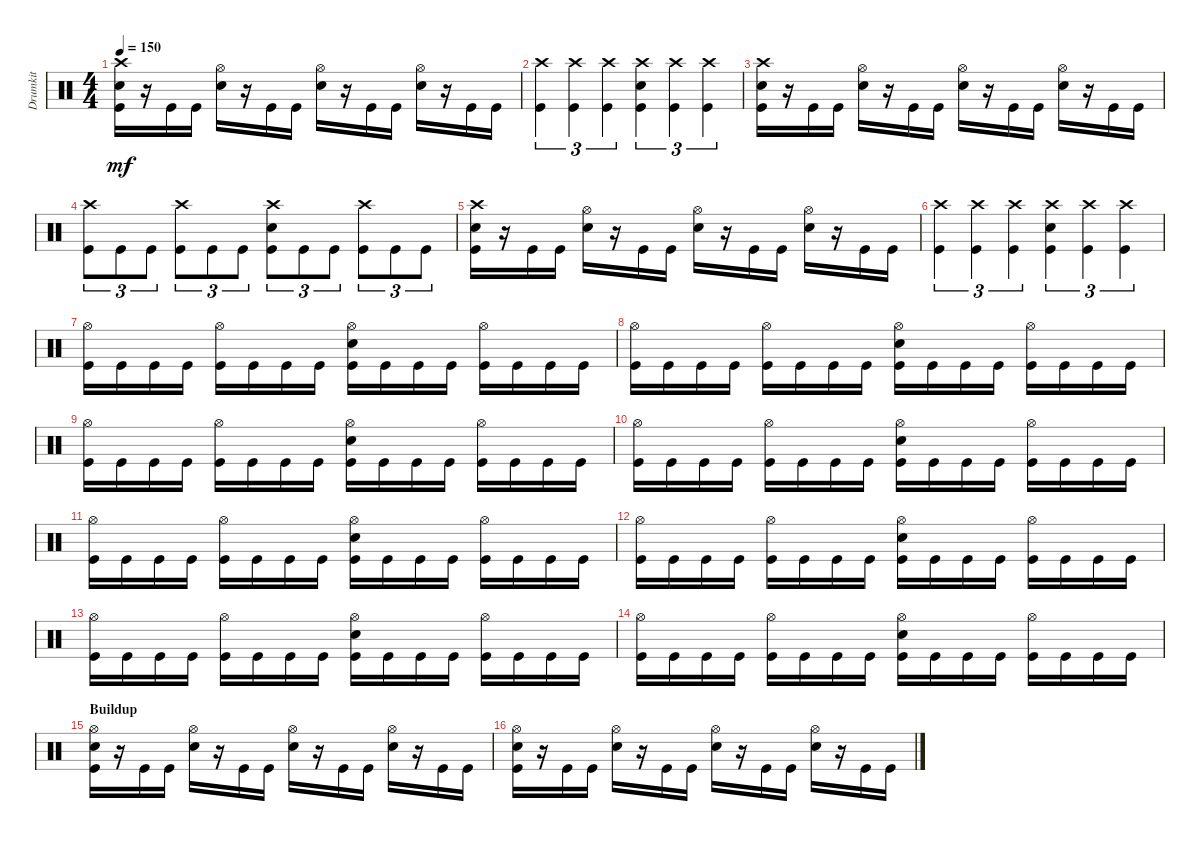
\track ("Drumkit" "Drumkit") {instrument percussion}
\staff {score}
\articulation defaults
\ts (4 4)
\tempo 150
\clef neutral
\ks c
("Snare (hit) 2" "Kick (hit)" "Crash high (hit)").16{dy mf} r.16 "Kick (hit)".16 "Kick (hit)".16 ("Snare (hit) 2" "Hi-Hat (open)").16 r.16 "Kick (hit)".16 "Kick (hit)".16 ("Snare (hit) 2" "Hi-Hat (open)").16 r.16 "Kick (hit)".16 "Kick (hit)".16 ("Snare (hit) 2" "Hi-Hat (open)").16 r.16 "Kick (hit)".16 "Kick (hit)".16 |
("Kick (hit)" "Crash high (hit)").4{tu (3 2)} ("Kick (hit)" "Crash high (hit)").4{tu (3 2)} ("Kick (hit)" "Crash high (hit)").4{tu (3 2)} ("Kick (hit)" "Crash high (hit)" "Snare (hit) 2").4{tu (3 2)} ("Kick (hit)" "Crash high (hit)").4{tu (3 2)} ("Kick (hit)" "Crash high (hit)").4{tu (3 2)} |
("Snare (hit) 2" "Kick (hit)" "Crash high (hit)").16 r.16 "Kick (hit)".16 "Kick (hit)".16 ("Snare (hit) 2" "Hi-Hat (open)").16 r.16 "Kick (hit)".16 "Kick (hit)".16 ("Snare (hit) 2" "Hi-Hat (open)").16 r.16 "Kick (hit)".16 "Kick (hit)".16 ("Snare (hit) 2" "Hi-Hat (open)").16 r.16 "Kick (hit)".16 "Kick (hit)".16 |
("Kick (hit)" "Crash high (hit)").8{tu (3 2)} "Kick (hit)".8{tu (3 2)} "Kick (hit)".8{tu (3 2)} ("Kick (hit)" "Crash high (hit)").8{tu (3 2)} "Kick (hit)".8{tu (3 2)} "Kick (hit)".8{tu (3 2)} ("Kick (hit)" "Crash high (hit)" "Snare (hit) 2").8{tu (3 2)} "Kick (hit)".8{tu (3 2)} "Kick (hit)".8{tu (3 2)} ("Kick (hit)" "Crash high (hit)").8{tu (3 2)} "Kick (hit)".8{tu (3 2)} "Kick (hit)".8{tu (3 2)} |
("Snare (hit) 2" "Kick (hit)" "Crash high (hit)").16 r.16 "Kick (hit)".16 "Kick (hit)".16 ("Snare (hit) 2" "Hi-Hat (open)").16 r.16 "Kick (hit)".16 "Kick (hit)".16 ("Snare (hit) 2" "Hi-Hat (open)").16 r.16 "Kick (hit)".16 "Kick (hit)".16 ("Snare (hit) 2" "Hi-Hat (open)").16 r.16 "Kick (hit)".16 "Kick (hit)".16 |
("Kick (hit)" "Crash high (hit)").4{tu (3 2)} ("Kick (hit)" "Crash high (hit)").4{tu (3 2)} ("Kick (hit)" "Crash high (hit)").4{tu (3 2)} ("Kick (hit)" "Crash high (hit)" "Snare (hit) 2").4{tu (3 2)} ("Kick (hit)" "Crash high (hit)").4{tu (3 2)} ("Kick (hit)" "Crash high (hit)").4{tu (3 2)} |
("Kick (hit)" "Hi-Hat (open)").16 "Kick (hit)".16 "Kick (hit)".16 "Kick (hit)".16 ("Kick (hit)" "Hi-Hat (open)").16 "Kick (hit)".16 "Kick (hit)".16 "Kick (hit)".16 ("Kick (hit)" "Hi-Hat (open)" "Snare (hit) 2").16 "Kick (hit)".16 "Kick (hit)".16 "Kick (hit)".16 ("Kick (hit)" "Hi-Hat (open)").16 "Kick (hit)".16 "Kick (hit)".16 "Kick (hit)".16 |
("Kick (hit)" "Hi-Hat (open)").16 "Kick (hit)".16 "Kick (hit)".16 "Kick (hit)".16 ("Kick (hit)" "Hi-Hat (open)").16 "Kick (hit)".16 "Kick (hit)".16 "Kick (hit)".16 ("Kick (hit)" "Hi-Hat (open)" "Snare (hit) 2").16 "Kick (hit)".16 "Kick (hit)".16 "Kick (hit)".16 ("Kick (hit)" "Hi-Hat (open)").16 "Kick (hit)".16 "Kick (hit)".16 "Kick (hit)".16 |
("Kick (hit)" "Hi-Hat (open)").16 "Kick (hit)".16 "Kick (hit)".16 "Kick (hit)".16 ("Kick (hit)" "Hi-Hat (open)").16 "Kick (hit)".16 "Kick (hit)".16 "Kick (hit)".16 ("Kick (hit)" "Hi-Hat (open)" "Snare (hit) 2").16 "Kick (hit)".16 "Kick (hit)".16 "Kick (hit)".16 ("Kick (hit)" "Hi-Hat (open)").16 "Kick (hit)".16 "Kick (hit)".16 "Kick (hit)".16 |
("Kick (hit)" "Hi-Hat (open)").16 "Kick (hit)".16 "Kick (hit)".16 "Kick (hit)".16 ("Kick (hit)" "Hi-Hat (open)").16 "Kick (hit)".16 "Kick (hit)".16 "Kick (hit)".16 ("Kick (hit)" "Hi-Hat (open)" "Snare (hit) 2").16 "Kick (hit)".16 "Kick (hit)".16 "Kick (hit)".16 ("Kick (hit)" "Hi-Hat (open)").16 "Kick (hit)".16 "Kick (hit)".16 "Kick (hit)".16 |
("Kick (hit)" "Hi-Hat (open)").16 "Kick (hit)".16 "Kick (hit)".16 "Kick (hit)".16 ("Kick (hit)" "Hi-Hat (open)").16 "Kick (hit)".16 "Kick (hit)".16 "Kick (hit)".16 ("Kick (hit)" "Hi-Hat (open)" "Snare (hit) 2").16 "Kick (hit)".16 "Kick (hit)".16 "Kick (hit)".16 ("Kick (hit)" "Hi-Hat (open)").16 "Kick (hit)".16 "Kick (hit)".16 "Kick (hit)".16 |
("Kick (hit)" "Hi-Hat (open)").16 "Kick (hit)".16 "Kick (hit)".16 "Kick (hit)".16 ("Kick (hit)" "Hi-Hat (open)").16 "Kick (hit)".16 "Kick (hit)".16 "Kick (hit)".16 ("Kick (hit)" "Hi-Hat (open)" "Snare (hit) 2").16 "Kick (hit)".16 "Kick (hit)".16 "Kick (hit)".16 ("Kick (hit)" "Hi-Hat (open)").16 "Kick (hit)".16 "Kick (hit)".16 "Kick (hit)".16 |
("Kick (hit)" "Hi-Hat (open)").16 "Kick (hit)".16 "Kick (hit)".16 "Kick (hit)".16 ("Kick (hit)" "Hi-Hat (open)").16 "Kick (hit)".16 "Kick (hit)".16 "Kick (hit)".16 ("Kick (hit)" "Hi-Hat (open)" "Snare (hit) 2").16 "Kick (hit)".16 "Kick (hit)".16 "Kick (hit)".16 ("Kick (hit)" "Hi-Hat (open)").16 "Kick (hit)".16 "Kick (hit)".16 "Kick (hit)".16 |
("Kick (hit)" "Hi-Hat (open)").16 "Kick (hit)".16 "Kick (hit)".16 "Kick (hit)".16 ("Kick (hit)" "Hi-Hat (open)").16 "Kick (hit)".16 "Kick (hit)".16 "Kick (hit)".16 ("Kick (hit)" "Hi-Hat (open)" "Snare (hit) 2").16 "Kick (hit)".16 "Kick (hit)".16 "Kick (hit)".16 ("Kick (hit)" "Hi-Hat (open)").16 "Kick (hit)".16 "Kick (hit)".16 "Kick (hit)".16 |
\section ("" "Buildup")
("Snare (hit) 2" "Kick (hit)" "Hi-Hat (open)").16 r.16 "Kick (hit)".16 "Kick (hit)".16 ("Snare (hit) 2" "Hi-Hat (open)").16 r.16 "Kick (hit)".16 "Kick (hit)".16 ("Snare (hit) 2" "Hi-Hat (open)").16 r.16 "Kick (hit)".16 "Kick (hit)".16 ("Snare (hit) 2" "Hi-Hat (open)").16 r.16 "Kick (hit)".16 "Kick (hit)".16 |
("Snare (hit) 2" "Kick (hit)" "Hi-Hat (open)").16 r.16 "Kick (hit)".16 "Kick (hit)".16 ("Snare (hit) 2" "Hi-Hat (open)").16 r.16 "Kick (hit)".16 "Kick (hit)".16 ("Snare (hit) 2" "Hi-Hat (open)").16 r.16 "Kick (hit)".16 "Kick (hit)".16 ("Snare (hit) 2" "Hi-Hat (open)").16 r.16 "Kick (hit)".16 "Kick (hit)".16
